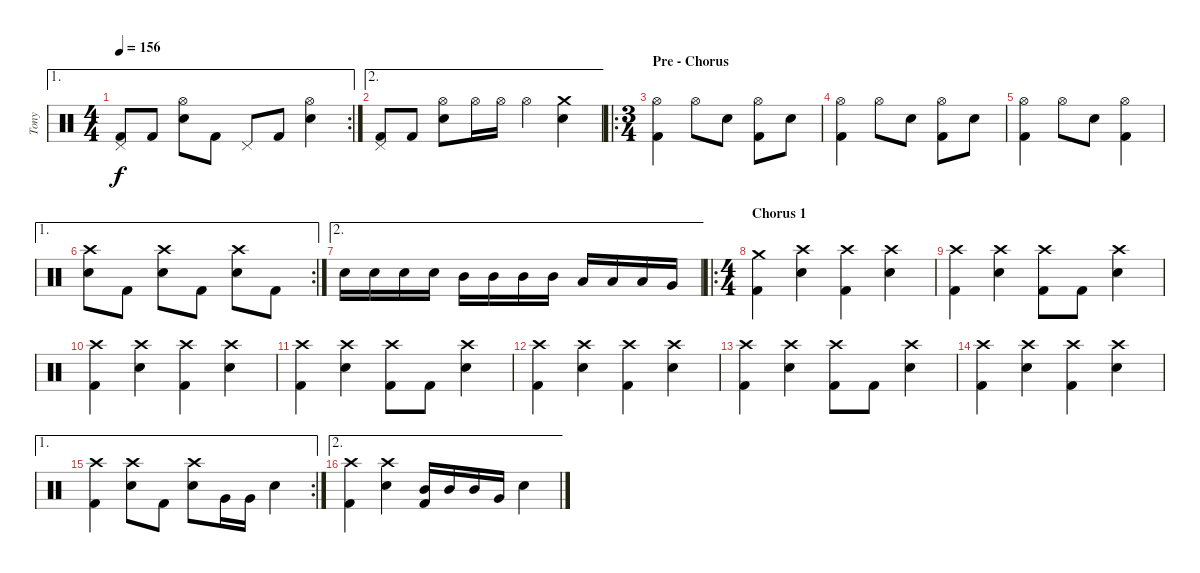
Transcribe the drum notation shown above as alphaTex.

\track ("Tony" "Tony") {instrument percussion}
\staff {score}
\articulation defaults
\ae 1
\rc 2
\ts (4 4)
\tempo 156
\clef neutral
\ks c
("Pedal Hi-Hat (hit)" "Kick (hit) 2").8{dy f} "Kick (hit) 2".8 ("Hi-Hat (open)" "Electric Snare (hit)").8 "Kick (hit) 2".8 "Pedal Hi-Hat (hit)".8 "Kick (hit) 2".8 ("Hi-Hat (open)" "Electric Snare (hit)").4 |
\ae 2
("Pedal Hi-Hat (hit)" "Kick (hit) 2").8 "Kick (hit) 2".8 ("Hi-Hat (open)" "Electric Snare (hit)").8 "Hi-Hat (open)".16 "Hi-Hat (open)".16 "Hi-Hat (open)".4 ("Crash medium (hit)" "Electric Snare (hit)").4 |
\ro
\ts (3 4)
\section ("" "Pre - Chorus")
("Hi-Hat (open)" "Kick (hit) 2").4 "Hi-Hat (open)".8 "Electric Snare (hit)".8 ("Hi-Hat (open)" "Kick (hit) 2").8 "Electric Snare (hit)".8 |
("Hi-Hat (open)" "Kick (hit) 2").4 "Hi-Hat (open)".8 "Electric Snare (hit)".8 ("Hi-Hat (open)" "Kick (hit) 2").8 "Electric Snare (hit)".8 |
("Hi-Hat (open)" "Kick (hit) 2").4 "Hi-Hat (open)".8 "Electric Snare (hit)".8 ("Hi-Hat (open)" "Kick (hit) 2").4 |
\ae 1
\rc 2
("Crash high (hit)" "Electric Snare (hit)").8 "Kick (hit) 2".8 ("Crash high (hit)" "Electric Snare (hit)").8 "Kick (hit) 2".8 ("Crash high (hit)" "Electric Snare (hit)").8 "Kick (hit) 2".8 |
\ae 2 "Electric Snare (hit)".16 "Electric Snare (hit)".16 "Electric Snare (hit)".16 "Electric Snare (hit)".16 "Mid Tom (hit)".16 "Mid Tom (hit)".16 "Mid Tom (hit)".16 "Mid Tom (hit)".16 "Low Tom (hit)".16 "Low Tom (hit)".16 "Low Tom (hit)".16 "Very Low Tom (hit)".16
|
\ro
\ts (4 4)
\section ("" "Chorus 1")
("Crash medium (hit)" "Kick (hit) 2").4 ("Crash high (hit)" "Electric Snare (hit)").4 ("Crash high (hit)" "Kick (hit) 2").4 ("Crash high (hit)" "Electric Snare (hit)").4 |
("Crash high (hit)" "Kick (hit) 2").4 ("Crash high (hit)" "Electric Snare (hit)").4 ("Crash high (hit)" "Kick (hit) 2").8 "Kick (hit) 2".8 ("Crash high (hit)" "Electric Snare (hit)").4 |
("Crash high (hit)" "Kick (hit) 2").4 ("Crash high (hit)" "Electric Snare (hit)").4 ("Crash high (hit)" "Kick (hit) 2").4 ("Crash high (hit)" "Electric Snare (hit)").4 |
("Crash high (hit)" "Kick (hit) 2").4 ("Crash high (hit)" "Electric Snare (hit)").4 ("Crash high (hit)" "Kick (hit) 2").8 "Kick (hit) 2".8 ("Crash high (hit)" "Electric Snare (hit)").4 |
("Crash high (hit)" "Kick (hit) 2").4 ("Crash high (hit)" "Electric Snare (hit)").4 ("Crash high (hit)" "Kick (hit) 2").4 ("Crash high (hit)" "Electric Snare (hit)").4 |
("Crash high (hit)" "Kick (hit) 2").4 ("Crash high (hit)" "Electric Snare (hit)").4 ("Crash high (hit)" "Kick (hit) 2").8 "Kick (hit) 2".8 ("Crash high (hit)" "Electric Snare (hit)").4 |
("Crash high (hit)" "Kick (hit) 2").4 ("Crash high (hit)" "Electric Snare (hit)").4 ("Crash high (hit)" "Kick (hit) 2").4 ("Crash high (hit)" "Electric Snare (hit)").4 |
\ae 1
\rc 2
("Crash high (hit)" "Kick (hit) 2").4 ("Crash high (hit)" "Electric Snare (hit)").8 "Kick (hit) 2".8 ("Crash high (hit)" "Electric Snare (hit)").8 "Very Low Tom (hit)".16 "Very Low Tom (hit)".16 "Electric Snare (hit)".4 |
\ae 2
("Crash high (hit)" "Kick (hit) 2").4 ("Crash high (hit)" "Electric Snare (hit)").4 ("Mid Tom (hit)" "Kick (hit) 2").16 "Mid Tom (hit)".16 "Mid Tom (hit)".16 "Very Low Tom (hit)".16 "Electric Snare (hit)".4
